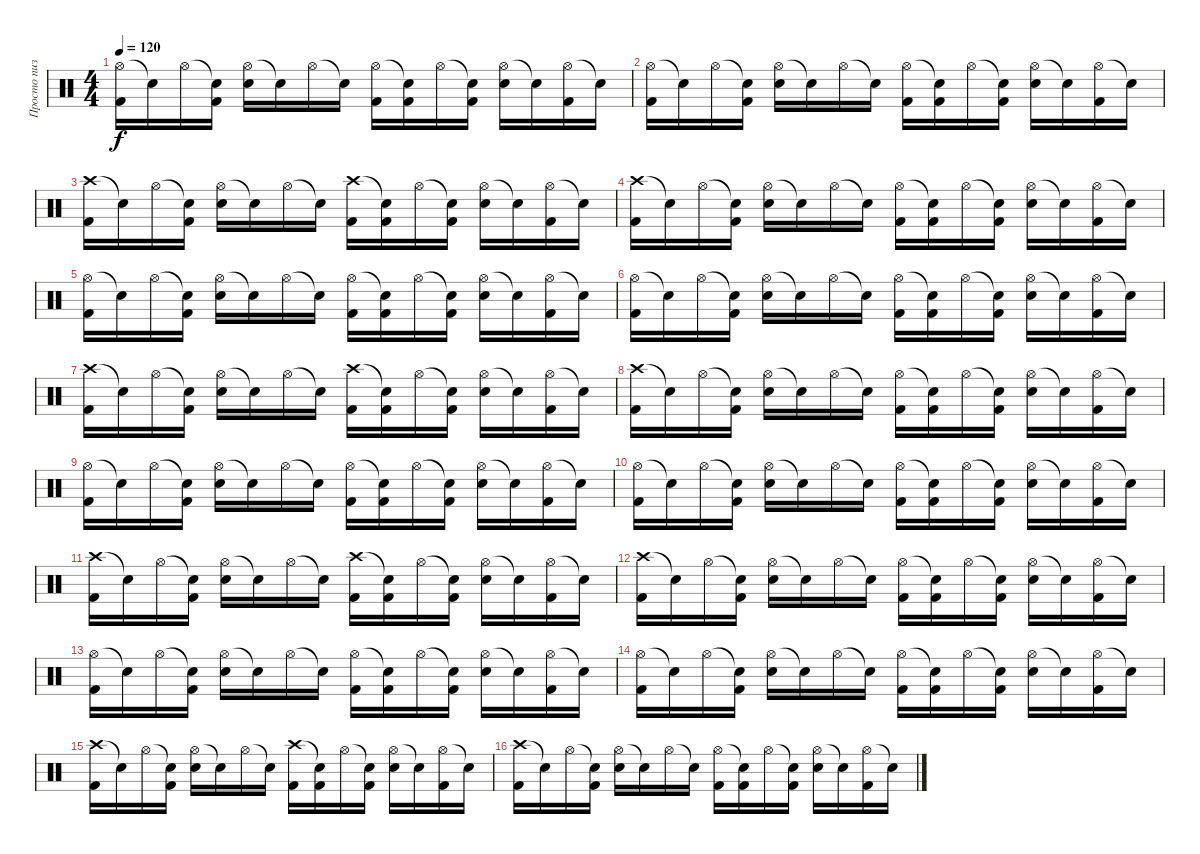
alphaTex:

\track ("Просто пиздец какой то" "Просто пиз") {instrument percussion}
\staff {score}
\articulation defaults
\ts (4 4)
\tempo 120
\clef neutral
\ks c
("Hi-Hat (open)" "Kick (hit) 2").16{dy f} "Snare (hit)"{t}.16 "Hi-Hat (open)".16 ("Snare (hit)"{t} "Kick (hit) 2").16 ("Hi-Hat (open)" "Snare (hit) 2").16 "Snare (hit)"{t}.16 "Hi-Hat (open)".16 "Snare (hit)"{t}.16 ("Hi-Hat (open)" "Kick (hit) 2").16 ("Snare (hit)"{t} "Kick (hit) 2").16 "Hi-Hat (open)".16 ("Snare (hit)"{t} "Kick (hit) 2").16 ("Hi-Hat (open)" "Snare (hit) 2").16 "Snare (hit)"{t}.16 ("Hi-Hat (open)" "Kick (hit) 2").16 "Snare (hit)"{t}.16 |
("Hi-Hat (open)" "Kick (hit) 2").16 "Snare (hit)"{t}.16 "Hi-Hat (open)".16 ("Snare (hit)"{t} "Kick (hit) 2").16 ("Hi-Hat (open)" "Snare (hit) 2").16 "Snare (hit)"{t}.16 "Hi-Hat (open)".16 "Snare (hit)"{t}.16 ("Hi-Hat (open)" "Kick (hit) 2").16 ("Snare (hit)"{t} "Kick (hit) 2").16 "Hi-Hat (open)".16 ("Snare (hit)"{t} "Kick (hit) 2").16 ("Hi-Hat (open)" "Snare (hit) 2").16 "Snare (hit)"{t}.16 ("Hi-Hat (open)" "Kick (hit) 2").16 "Snare (hit)"{t}.16 |
("Crash high (hit)" "Kick (hit) 2").16 "Snare (hit)"{t}.16 "Hi-Hat (open)".16 ("Snare (hit)"{t} "Kick (hit) 2").16 ("Hi-Hat (open)" "Snare (hit) 2").16 "Snare (hit)"{t}.16 "Hi-Hat (open)".16 "Snare (hit)"{t}.16 ("Crash high (hit)" "Kick (hit) 2").16 ("Snare (hit)"{t} "Kick (hit) 2").16 "Hi-Hat (open)".16 ("Snare (hit)"{t} "Kick (hit) 2").16 ("Hi-Hat (open)" "Snare (hit) 2").16 "Snare (hit)"{t}.16 ("Hi-Hat (open)" "Kick (hit) 2").16 "Snare (hit)"{t}.16 |
("Crash high (hit)" "Kick (hit) 2").16 "Snare (hit)"{t}.16 "Hi-Hat (open)".16 ("Snare (hit)"{t} "Kick (hit) 2").16 ("Hi-Hat (open)" "Snare (hit) 2").16 "Snare (hit)"{t}.16 "Hi-Hat (open)".16 "Snare (hit)"{t}.16 ("Hi-Hat (open)" "Kick (hit) 2").16 ("Snare (hit)"{t} "Kick (hit) 2").16 "Hi-Hat (open)".16 ("Snare (hit)"{t} "Kick (hit) 2").16 ("Hi-Hat (open)" "Snare (hit) 2").16 "Snare (hit)"{t}.16 ("Hi-Hat (open)" "Kick (hit) 2").16 "Snare (hit)"{t}.16 |
("Hi-Hat (open)" "Kick (hit) 2").16 "Snare (hit)"{t}.16 "Hi-Hat (open)".16 ("Snare (hit)"{t} "Kick (hit) 2").16 ("Hi-Hat (open)" "Snare (hit) 2").16 "Snare (hit)"{t}.16 "Hi-Hat (open)".16 "Snare (hit)"{t}.16 ("Hi-Hat (open)" "Kick (hit) 2").16 ("Snare (hit)"{t} "Kick (hit) 2").16 "Hi-Hat (open)".16 ("Snare (hit)"{t} "Kick (hit) 2").16 ("Hi-Hat (open)" "Snare (hit) 2").16 "Snare (hit)"{t}.16 ("Hi-Hat (open)" "Kick (hit) 2").16 "Snare (hit)"{t}.16 |
("Hi-Hat (open)" "Kick (hit) 2").16 "Snare (hit)"{t}.16 "Hi-Hat (open)".16 ("Snare (hit)"{t} "Kick (hit) 2").16 ("Hi-Hat (open)" "Snare (hit) 2").16 "Snare (hit)"{t}.16 "Hi-Hat (open)".16 "Snare (hit)"{t}.16 ("Hi-Hat (open)" "Kick (hit) 2").16 ("Snare (hit)"{t} "Kick (hit) 2").16 "Hi-Hat (open)".16 ("Snare (hit)"{t} "Kick (hit) 2").16 ("Hi-Hat (open)" "Snare (hit) 2").16 "Snare (hit)"{t}.16 ("Hi-Hat (open)" "Kick (hit) 2").16 "Snare (hit)"{t}.16 |
("Crash high (hit)" "Kick (hit) 2").16 "Snare (hit)"{t}.16 "Hi-Hat (open)".16 ("Snare (hit)"{t} "Kick (hit) 2").16 ("Hi-Hat (open)" "Snare (hit) 2").16 "Snare (hit)"{t}.16 "Hi-Hat (open)".16 "Snare (hit)"{t}.16 ("Crash high (hit)" "Kick (hit) 2").16 ("Snare (hit)"{t} "Kick (hit) 2").16 "Hi-Hat (open)".16 ("Snare (hit)"{t} "Kick (hit) 2").16 ("Hi-Hat (open)" "Snare (hit) 2").16 "Snare (hit)"{t}.16 ("Hi-Hat (open)" "Kick (hit) 2").16 "Snare (hit)"{t}.16 |
("Crash high (hit)" "Kick (hit) 2").16 "Snare (hit)"{t}.16 "Hi-Hat (open)".16 ("Snare (hit)"{t} "Kick (hit) 2").16 ("Hi-Hat (open)" "Snare (hit) 2").16 "Snare (hit)"{t}.16 "Hi-Hat (open)".16 "Snare (hit)"{t}.16 ("Hi-Hat (open)" "Kick (hit) 2").16 ("Snare (hit)"{t} "Kick (hit) 2").16 "Hi-Hat (open)".16 ("Snare (hit)"{t} "Kick (hit) 2").16 ("Hi-Hat (open)" "Snare (hit) 2").16 "Snare (hit)"{t}.16 ("Hi-Hat (open)" "Kick (hit) 2").16 "Snare (hit)"{t}.16 |
("Hi-Hat (open)" "Kick (hit) 2").16 "Snare (hit)"{t}.16 "Hi-Hat (open)".16 ("Snare (hit)"{t} "Kick (hit) 2").16 ("Hi-Hat (open)" "Snare (hit) 2").16 "Snare (hit)"{t}.16 "Hi-Hat (open)".16 "Snare (hit)"{t}.16 ("Hi-Hat (open)" "Kick (hit) 2").16 ("Snare (hit)"{t} "Kick (hit) 2").16 "Hi-Hat (open)".16 ("Snare (hit)"{t} "Kick (hit) 2").16 ("Hi-Hat (open)" "Snare (hit) 2").16 "Snare (hit)"{t}.16 ("Hi-Hat (open)" "Kick (hit) 2").16 "Snare (hit)"{t}.16 |
("Hi-Hat (open)" "Kick (hit) 2").16 "Snare (hit)"{t}.16 "Hi-Hat (open)".16 ("Snare (hit)"{t} "Kick (hit) 2").16 ("Hi-Hat (open)" "Snare (hit) 2").16 "Snare (hit)"{t}.16 "Hi-Hat (open)".16 "Snare (hit)"{t}.16 ("Hi-Hat (open)" "Kick (hit) 2").16 ("Snare (hit)"{t} "Kick (hit) 2").16 "Hi-Hat (open)".16 ("Snare (hit)"{t} "Kick (hit) 2").16 ("Hi-Hat (open)" "Snare (hit) 2").16 "Snare (hit)"{t}.16 ("Hi-Hat (open)" "Kick (hit) 2").16 "Snare (hit)"{t}.16 |
("Crash high (hit)" "Kick (hit) 2").16 "Snare (hit)"{t}.16 "Hi-Hat (open)".16 ("Snare (hit)"{t} "Kick (hit) 2").16 ("Hi-Hat (open)" "Snare (hit) 2").16 "Snare (hit)"{t}.16 "Hi-Hat (open)".16 "Snare (hit)"{t}.16 ("Crash high (hit)" "Kick (hit) 2").16 ("Snare (hit)"{t} "Kick (hit) 2").16 "Hi-Hat (open)".16 ("Snare (hit)"{t} "Kick (hit) 2").16 ("Hi-Hat (open)" "Snare (hit) 2").16 "Snare (hit)"{t}.16 ("Hi-Hat (open)" "Kick (hit) 2").16 "Snare (hit)"{t}.16 |
("Crash high (hit)" "Kick (hit) 2").16 "Snare (hit)"{t}.16 "Hi-Hat (open)".16 ("Snare (hit)"{t} "Kick (hit) 2").16 ("Hi-Hat (open)" "Snare (hit) 2").16 "Snare (hit)"{t}.16 "Hi-Hat (open)".16 "Snare (hit)"{t}.16 ("Hi-Hat (open)" "Kick (hit) 2").16 ("Snare (hit)"{t} "Kick (hit) 2").16 "Hi-Hat (open)".16 ("Snare (hit)"{t} "Kick (hit) 2").16 ("Hi-Hat (open)" "Snare (hit) 2").16 "Snare (hit)"{t}.16 ("Hi-Hat (open)" "Kick (hit) 2").16 "Snare (hit)"{t}.16 |
("Hi-Hat (open)" "Kick (hit) 2").16 "Snare (hit)"{t}.16 "Hi-Hat (open)".16 ("Snare (hit)"{t} "Kick (hit) 2").16 ("Hi-Hat (open)" "Snare (hit) 2").16 "Snare (hit)"{t}.16 "Hi-Hat (open)".16 "Snare (hit)"{t}.16 ("Hi-Hat (open)" "Kick (hit) 2").16 ("Snare (hit)"{t} "Kick (hit) 2").16 "Hi-Hat (open)".16 ("Snare (hit)"{t} "Kick (hit) 2").16 ("Hi-Hat (open)" "Snare (hit) 2").16 "Snare (hit)"{t}.16 ("Hi-Hat (open)" "Kick (hit) 2").16 "Snare (hit)"{t}.16 |
("Hi-Hat (open)" "Kick (hit) 2").16 "Snare (hit)"{t}.16 "Hi-Hat (open)".16 ("Snare (hit)"{t} "Kick (hit) 2").16 ("Hi-Hat (open)" "Snare (hit) 2").16 "Snare (hit)"{t}.16 "Hi-Hat (open)".16 "Snare (hit)"{t}.16 ("Hi-Hat (open)" "Kick (hit) 2").16 ("Snare (hit)"{t} "Kick (hit) 2").16 "Hi-Hat (open)".16 ("Snare (hit)"{t} "Kick (hit) 2").16 ("Hi-Hat (open)" "Snare (hit) 2").16 "Snare (hit)"{t}.16 ("Hi-Hat (open)" "Kick (hit) 2").16 "Snare (hit)"{t}.16 |
("Crash high (hit)" "Kick (hit) 2").16 "Snare (hit)"{t}.16 "Hi-Hat (open)".16 ("Snare (hit)"{t} "Kick (hit) 2").16 ("Hi-Hat (open)" "Snare (hit) 2").16 "Snare (hit)"{t}.16 "Hi-Hat (open)".16 "Snare (hit)"{t}.16 ("Crash high (hit)" "Kick (hit) 2").16 ("Snare (hit)"{t} "Kick (hit) 2").16 "Hi-Hat (open)".16 ("Snare (hit)"{t} "Kick (hit) 2").16 ("Hi-Hat (open)" "Snare (hit) 2").16 "Snare (hit)"{t}.16 ("Hi-Hat (open)" "Kick (hit) 2").16 "Snare (hit)"{t}.16 |
("Crash high (hit)" "Kick (hit) 2").16 "Snare (hit)"{t}.16 "Hi-Hat (open)".16 ("Snare (hit)"{t} "Kick (hit) 2").16 ("Hi-Hat (open)" "Snare (hit) 2").16 "Snare (hit)"{t}.16 "Hi-Hat (open)".16 "Snare (hit)"{t}.16 ("Hi-Hat (open)" "Kick (hit) 2").16 ("Snare (hit)"{t} "Kick (hit) 2").16 "Hi-Hat (open)".16 ("Snare (hit)"{t} "Kick (hit) 2").16 ("Hi-Hat (open)" "Snare (hit) 2").16 "Snare (hit)"{t}.16 ("Hi-Hat (open)" "Kick (hit) 2").16 "Snare (hit)"{t}.16
